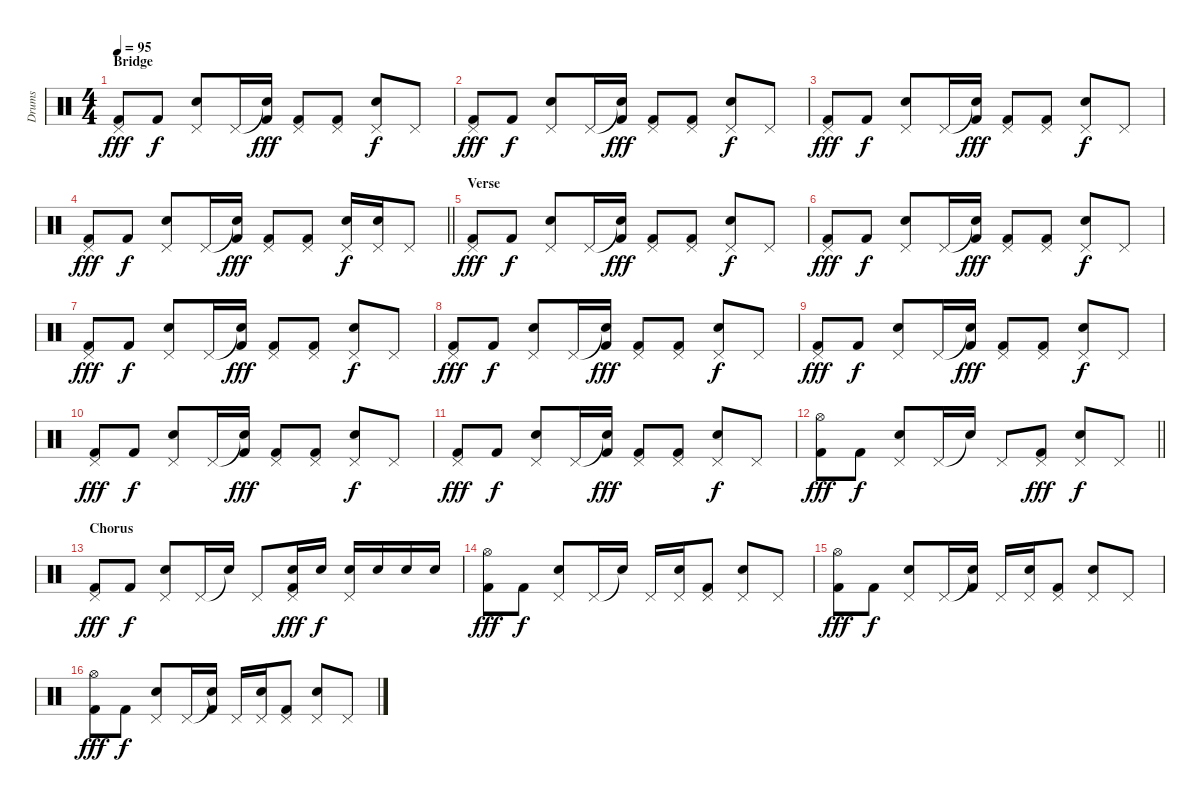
\track ("Drums" "Drums") {instrument percussion}
\staff {score}
\articulation defaults
\ts (4 4)
\section ("" "Bridge")
\tempo 95
\clef neutral
\ks c
("Pedal Hi-Hat (hit)" "Kick (hit) 2").8{dy fff} "Kick (hit) 2".8{dy f} ("Pedal Hi-Hat (hit)" "Snare (hit) 2").8 "Pedal Hi-Hat (hit)".16 ("Snare (hit)"{t} "Kick (hit) 2").16{dy fff} ("Pedal Hi-Hat (hit)" "Kick (hit) 2").8 ("Pedal Hi-Hat (hit)" "Kick (hit) 2").8 ("Pedal Hi-Hat (hit)" "Snare (hit) 2").8{dy f} "Pedal Hi-Hat (hit)".8 |
("Pedal Hi-Hat (hit)" "Kick (hit) 2").8{dy fff} "Kick (hit) 2".8{dy f} ("Pedal Hi-Hat (hit)" "Snare (hit) 2").8 "Pedal Hi-Hat (hit)".16 ("Snare (hit)"{t} "Kick (hit) 2").16{dy fff} ("Pedal Hi-Hat (hit)" "Kick (hit) 2").8 ("Pedal Hi-Hat (hit)" "Kick (hit) 2").8 ("Pedal Hi-Hat (hit)" "Snare (hit) 2").8{dy f} "Pedal Hi-Hat (hit)".8 |
("Pedal Hi-Hat (hit)" "Kick (hit) 2").8{dy fff} "Kick (hit) 2".8{dy f} ("Pedal Hi-Hat (hit)" "Snare (hit) 2").8 "Pedal Hi-Hat (hit)".16 ("Snare (hit)"{t} "Kick (hit) 2").16{dy fff} ("Pedal Hi-Hat (hit)" "Kick (hit) 2").8 ("Pedal Hi-Hat (hit)" "Kick (hit) 2").8 ("Pedal Hi-Hat (hit)" "Snare (hit) 2").8{dy f} "Pedal Hi-Hat (hit)".8 |
\barLineRight lightlight
("Pedal Hi-Hat (hit)" "Kick (hit) 2").8{dy fff} "Kick (hit) 2".8{dy f} ("Pedal Hi-Hat (hit)" "Snare (hit) 2").8 "Pedal Hi-Hat (hit)".16 ("Snare (hit)"{t} "Kick (hit) 2").16{dy fff} ("Pedal Hi-Hat (hit)" "Kick (hit) 2").8 ("Pedal Hi-Hat (hit)" "Kick (hit) 2").8 ("Pedal Hi-Hat (hit)" "Snare (hit) 2").16{dy f} ("Pedal Hi-Hat (hit)" "Snare (hit) 2").16 "Pedal Hi-Hat (hit)".8 |
\section ("" "Verse")
("Pedal Hi-Hat (hit)" "Kick (hit) 2").8{dy fff} "Kick (hit) 2".8{dy f} ("Pedal Hi-Hat (hit)" "Snare (hit) 2").8 "Pedal Hi-Hat (hit)".16 ("Snare (hit)"{t} "Kick (hit) 2").16{dy fff} ("Pedal Hi-Hat (hit)" "Kick (hit) 2").8 ("Pedal Hi-Hat (hit)" "Kick (hit) 2").8 ("Pedal Hi-Hat (hit)" "Snare (hit) 2").8{dy f} "Pedal Hi-Hat (hit)".8 |
("Pedal Hi-Hat (hit)" "Kick (hit) 2").8{dy fff} "Kick (hit) 2".8{dy f} ("Pedal Hi-Hat (hit)" "Snare (hit) 2").8 "Pedal Hi-Hat (hit)".16 ("Snare (hit)"{t} "Kick (hit) 2").16{dy fff} ("Pedal Hi-Hat (hit)" "Kick (hit) 2").8 ("Pedal Hi-Hat (hit)" "Kick (hit) 2").8 ("Pedal Hi-Hat (hit)" "Snare (hit) 2").8{dy f} "Pedal Hi-Hat (hit)".8 |
("Pedal Hi-Hat (hit)" "Kick (hit) 2").8{dy fff} "Kick (hit) 2".8{dy f} ("Pedal Hi-Hat (hit)" "Snare (hit) 2").8 "Pedal Hi-Hat (hit)".16 ("Snare (hit)"{t} "Kick (hit) 2").16{dy fff} ("Pedal Hi-Hat (hit)" "Kick (hit) 2").8 ("Pedal Hi-Hat (hit)" "Kick (hit) 2").8 ("Pedal Hi-Hat (hit)" "Snare (hit) 2").8{dy f} "Pedal Hi-Hat (hit)".8 |
("Pedal Hi-Hat (hit)" "Kick (hit) 2").8{dy fff} "Kick (hit) 2".8{dy f} ("Pedal Hi-Hat (hit)" "Snare (hit) 2").8 "Pedal Hi-Hat (hit)".16 ("Snare (hit)"{t} "Kick (hit) 2").16{dy fff} ("Pedal Hi-Hat (hit)" "Kick (hit) 2").8 ("Pedal Hi-Hat (hit)" "Kick (hit) 2").8 ("Pedal Hi-Hat (hit)" "Snare (hit) 2").8{dy f} "Pedal Hi-Hat (hit)".8 |
("Pedal Hi-Hat (hit)" "Kick (hit) 2").8{dy fff} "Kick (hit) 2".8{dy f} ("Pedal Hi-Hat (hit)" "Snare (hit) 2").8 "Pedal Hi-Hat (hit)".16 ("Snare (hit)"{t} "Kick (hit) 2").16{dy fff} ("Pedal Hi-Hat (hit)" "Kick (hit) 2").8 ("Pedal Hi-Hat (hit)" "Kick (hit) 2").8 ("Pedal Hi-Hat (hit)" "Snare (hit) 2").8{dy f} "Pedal Hi-Hat (hit)".8 |
("Pedal Hi-Hat (hit)" "Kick (hit) 2").8{dy fff} "Kick (hit) 2".8{dy f} ("Pedal Hi-Hat (hit)" "Snare (hit) 2").8 "Pedal Hi-Hat (hit)".16 ("Snare (hit)"{t} "Kick (hit) 2").16{dy fff} ("Pedal Hi-Hat (hit)" "Kick (hit) 2").8 ("Pedal Hi-Hat (hit)" "Kick (hit) 2").8 ("Pedal Hi-Hat (hit)" "Snare (hit) 2").8{dy f} "Pedal Hi-Hat (hit)".8 |
("Pedal Hi-Hat (hit)" "Kick (hit) 2").8{dy fff} "Kick (hit) 2".8{dy f} ("Pedal Hi-Hat (hit)" "Snare (hit) 2").8 "Pedal Hi-Hat (hit)".16 ("Snare (hit)"{t} "Kick (hit) 2").16{dy fff} ("Pedal Hi-Hat (hit)" "Kick (hit) 2").8 ("Pedal Hi-Hat (hit)" "Kick (hit) 2").8 ("Pedal Hi-Hat (hit)" "Snare (hit) 2").8{dy f} "Pedal Hi-Hat (hit)".8 |
\barLineRight lightlight
("Hi-Hat (open)" "Kick (hit) 2").8{dy fff} "Kick (hit) 2".8{dy f} ("Pedal Hi-Hat (hit)" "Snare (hit) 2").8 "Pedal Hi-Hat (hit)".16 "Snare (hit)"{t}.16 "Pedal Hi-Hat (hit)".8 ("Pedal Hi-Hat (hit)" "Kick (hit) 2").8{dy fff} ("Pedal Hi-Hat (hit)" "Snare (hit) 2").8{dy f} "Pedal Hi-Hat (hit)".8 |
\section ("" "Chorus")
("Pedal Hi-Hat (hit)" "Kick (hit) 2").8{dy fff} "Kick (hit) 2".8{dy f} ("Pedal Hi-Hat (hit)" "Snare (hit) 2").8 "Pedal Hi-Hat (hit)".16 "Snare (hit)"{t}.16 "Pedal Hi-Hat (hit)".8 ("Pedal Hi-Hat (hit)" "Snare (hit) 2" "Kick (hit) 2").16{dy fff} "Snare (hit) 2".16{dy f} ("Pedal Hi-Hat (hit)" "Snare (hit) 2").16 "Snare (hit) 2".16 "Snare (hit) 2".16 "Snare (hit) 2".16 |
("Hi-Hat (open)" "Kick (hit) 2").8{dy fff} "Kick (hit) 2".8{dy f} ("Pedal Hi-Hat (hit)" "Snare (hit) 2").8 "Pedal Hi-Hat (hit)".16 "Snare (hit)"{t}.16 "Pedal Hi-Hat (hit)".16 ("Pedal Hi-Hat (hit)" "Snare (hit) 2").16 ("Pedal Hi-Hat (hit)" "Kick (hit) 2").8 ("Pedal Hi-Hat (hit)" "Snare (hit) 2").8 "Pedal Hi-Hat (hit)".8 |
("Hi-Hat (open)" "Kick (hit) 2").8{dy fff} "Kick (hit) 2".8{dy f} ("Pedal Hi-Hat (hit)" "Snare (hit) 2").8 "Pedal Hi-Hat (hit)".16 ("Snare (hit)"{t} "Kick (hit) 2").16 "Pedal Hi-Hat (hit)".16 ("Pedal Hi-Hat (hit)" "Snare (hit) 2").16 ("Pedal Hi-Hat (hit)" "Kick (hit) 2").8 ("Pedal Hi-Hat (hit)" "Snare (hit) 2").8 "Pedal Hi-Hat (hit)".8 |
("Hi-Hat (open)" "Kick (hit) 2").8{dy fff} "Kick (hit) 2".8{dy f} ("Pedal Hi-Hat (hit)" "Snare (hit) 2").8 "Pedal Hi-Hat (hit)".16 ("Snare (hit)"{t} "Kick (hit) 2").16 "Pedal Hi-Hat (hit)".16 ("Pedal Hi-Hat (hit)" "Snare (hit) 2").16 ("Pedal Hi-Hat (hit)" "Kick (hit) 2").8 ("Pedal Hi-Hat (hit)" "Snare (hit) 2").8 "Pedal Hi-Hat (hit)".8
